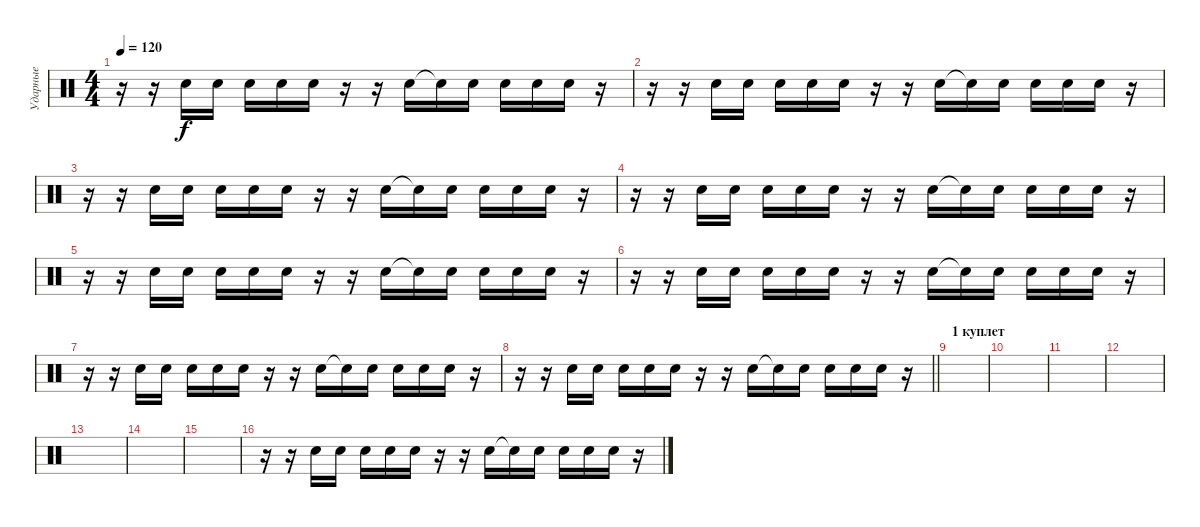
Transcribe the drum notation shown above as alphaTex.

\track ("Ударные" "Ударные") {instrument percussion}
\staff {score}
\articulation defaults
\ts (4 4)
\tempo 120
\clef neutral
\ks c
r.16{dy f} r.16 "Hand Clap (hit)".16 "Hand Clap (hit)".16 "Hand Clap (hit)".16 "Hand Clap (hit)".16 "Hand Clap (hit)".16 r.16 r.16 "Hand Clap (hit)".16 "Hand Clap (hit)"{t}.16 "Hand Clap (hit)".16 "Hand Clap (hit)".16 "Hand Clap (hit)".16 "Hand Clap (hit)".16 r.16 |
r.16 r.16 "Hand Clap (hit)".16 "Hand Clap (hit)".16 "Hand Clap (hit)".16 "Hand Clap (hit)".16 "Hand Clap (hit)".16 r.16 r.16 "Hand Clap (hit)".16 "Hand Clap (hit)"{t}.16 "Hand Clap (hit)".16 "Hand Clap (hit)".16 "Hand Clap (hit)".16 "Hand Clap (hit)".16 r.16 |
r.16 r.16 "Hand Clap (hit)".16 "Hand Clap (hit)".16 "Hand Clap (hit)".16 "Hand Clap (hit)".16 "Hand Clap (hit)".16 r.16 r.16 "Hand Clap (hit)".16 "Hand Clap (hit)"{t}.16 "Hand Clap (hit)".16 "Hand Clap (hit)".16 "Hand Clap (hit)".16 "Hand Clap (hit)".16 r.16 |
r.16 r.16 "Hand Clap (hit)".16 "Hand Clap (hit)".16 "Hand Clap (hit)".16 "Hand Clap (hit)".16 "Hand Clap (hit)".16 r.16 r.16 "Hand Clap (hit)".16 "Hand Clap (hit)"{t}.16 "Hand Clap (hit)".16 "Hand Clap (hit)".16 "Hand Clap (hit)".16 "Hand Clap (hit)".16 r.16 |
r.16 r.16 "Hand Clap (hit)".16 "Hand Clap (hit)".16 "Hand Clap (hit)".16 "Hand Clap (hit)".16 "Hand Clap (hit)".16 r.16 r.16 "Hand Clap (hit)".16 "Hand Clap (hit)"{t}.16 "Hand Clap (hit)".16 "Hand Clap (hit)".16 "Hand Clap (hit)".16 "Hand Clap (hit)".16 r.16 |
r.16 r.16 "Hand Clap (hit)".16 "Hand Clap (hit)".16 "Hand Clap (hit)".16 "Hand Clap (hit)".16 "Hand Clap (hit)".16 r.16 r.16 "Hand Clap (hit)".16 "Hand Clap (hit)"{t}.16 "Hand Clap (hit)".16 "Hand Clap (hit)".16 "Hand Clap (hit)".16 "Hand Clap (hit)".16 r.16 |
r.16 r.16 "Hand Clap (hit)".16 "Hand Clap (hit)".16 "Hand Clap (hit)".16 "Hand Clap (hit)".16 "Hand Clap (hit)".16 r.16 r.16 "Hand Clap (hit)".16 "Hand Clap (hit)"{t}.16 "Hand Clap (hit)".16 "Hand Clap (hit)".16 "Hand Clap (hit)".16 "Hand Clap (hit)".16 r.16 |
\barLineRight lightlight
r.16 r.16 "Hand Clap (hit)".16 "Hand Clap (hit)".16 "Hand Clap (hit)".16 "Hand Clap (hit)".16 "Hand Clap (hit)".16 r.16 r.16 "Hand Clap (hit)".16 "Hand Clap (hit)"{t}.16 "Hand Clap (hit)".16 "Hand Clap (hit)".16 "Hand Clap (hit)".16 "Hand Clap (hit)".16 r.16 |
\section ("" "1 куплет")
|
|
|
|
|
|
|
r.16 r.16 "Hand Clap (hit)".16 "Hand Clap (hit)".16 "Hand Clap (hit)".16 "Hand Clap (hit)".16 "Hand Clap (hit)".16 r.16 r.16 "Hand Clap (hit)".16 "Hand Clap (hit)"{t}.16 "Hand Clap (hit)".16 "Hand Clap (hit)".16 "Hand Clap (hit)".16 "Hand Clap (hit)".16 r.16
